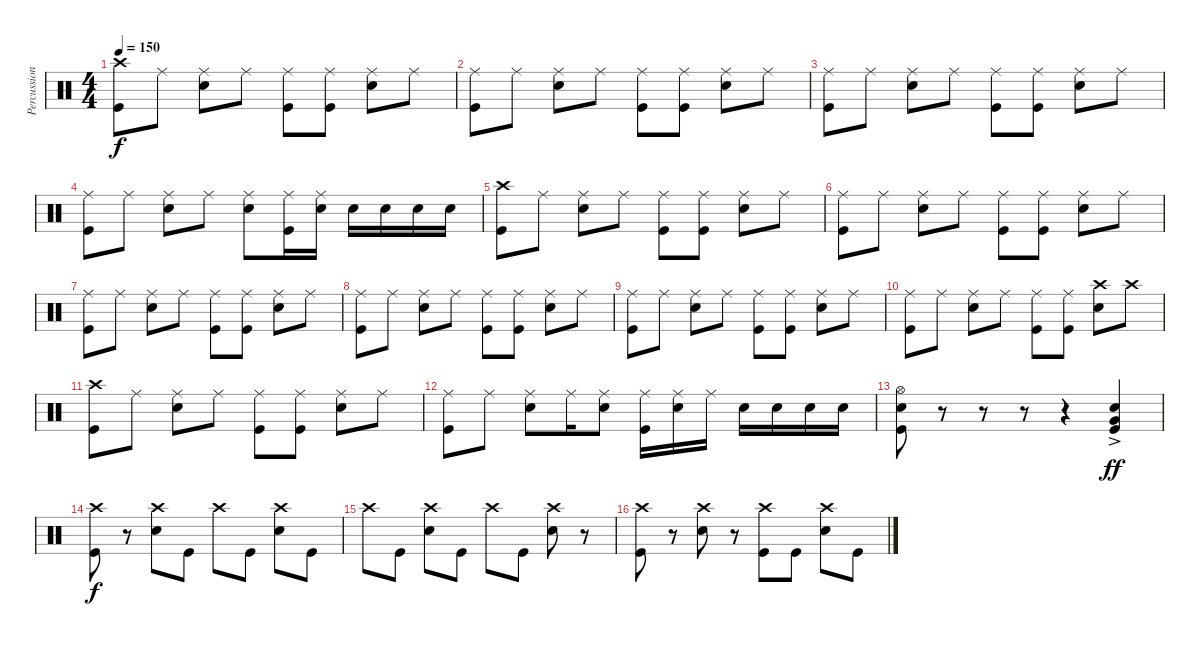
\track ("Percussion" "Percussion") {instrument percussion}
\staff {score}
\articulation defaults
\ts (4 4)
\tempo 150
\clef neutral
\ks c
("Crash high (hit)" "Kick (hit)").8{dy f} "Ride (middle)".8 ("Ride (middle)" "Snare (hit) 2").8 "Ride (middle)".8 ("Ride (middle)" "Kick (hit)").8 ("Ride (middle)" "Kick (hit)").8 ("Ride (middle)" "Snare (hit) 2").8 "Ride (middle)".8 |
("Ride (middle)" "Kick (hit)").8 "Ride (middle)".8 ("Ride (middle)" "Snare (hit) 2").8 "Ride (middle)".8 ("Ride (middle)" "Kick (hit)").8 ("Ride (middle)" "Kick (hit)").8 ("Ride (middle)" "Snare (hit) 2").8 "Ride (middle)".8 |
("Ride (middle)" "Kick (hit)").8 "Ride (middle)".8 ("Ride (middle)" "Snare (hit) 2").8 "Ride (middle)".8 ("Ride (middle)" "Kick (hit)").8 ("Ride (middle)" "Kick (hit)").8 ("Ride (middle)" "Snare (hit) 2").8 "Ride (middle)".8 |
("Ride (middle)" "Kick (hit)").8 "Ride (middle)".8 ("Ride (middle)" "Snare (hit) 2").8 "Ride (middle)".8 ("Ride (middle)" "Snare (hit) 2").8 ("Ride (middle)" "Kick (hit)").16 ("Ride (middle)" "Snare (hit) 2").16 "Snare (hit) 2".16 "Snare (hit) 2".16 "Snare (hit) 2".16 "Snare (hit) 2".16 |
("Crash high (hit)" "Kick (hit)").8 "Ride (middle)".8 ("Ride (middle)" "Snare (hit) 2").8 "Ride (middle)".8 ("Ride (middle)" "Kick (hit)").8 ("Ride (middle)" "Kick (hit)").8 ("Ride (middle)" "Snare (hit) 2").8 "Ride (middle)".8 |
("Ride (middle)" "Kick (hit)").8 "Ride (middle)".8 ("Ride (middle)" "Snare (hit) 2").8 "Ride (middle)".8 ("Ride (middle)" "Kick (hit)").8 ("Ride (middle)" "Kick (hit)").8 ("Ride (middle)" "Snare (hit) 2").8 "Ride (middle)".8 |
("Ride (middle)" "Kick (hit)").8 "Ride (middle)".8 ("Ride (middle)" "Snare (hit) 2").8 "Ride (middle)".8 ("Ride (middle)" "Kick (hit)").8 ("Ride (middle)" "Kick (hit)").8 ("Ride (middle)" "Snare (hit) 2").8 "Ride (middle)".8 |
("Ride (middle)" "Kick (hit)").8 "Ride (middle)".8 ("Ride (middle)" "Snare (hit) 2").8 "Ride (middle)".8 ("Ride (middle)" "Kick (hit)").8 ("Ride (middle)" "Kick (hit)").8 ("Ride (middle)" "Snare (hit) 2").8 "Ride (middle)".8 |
("Ride (middle)" "Kick (hit)").8 "Ride (middle)".8 ("Ride (middle)" "Snare (hit) 2").8 "Ride (middle)".8 ("Ride (middle)" "Kick (hit)").8 ("Ride (middle)" "Kick (hit)").8 ("Ride (middle)" "Snare (hit) 2").8 "Ride (middle)".8 |
("Ride (middle)" "Kick (hit)").8 "Ride (middle)".8 ("Ride (middle)" "Snare (hit) 2").8 "Ride (middle)".8 ("Ride (middle)" "Kick (hit)").8 ("Ride (middle)" "Kick (hit)").8 ("Crash high (hit)" "Snare (hit) 2").8 "Crash high (hit)".8 |
("Crash high (hit)" "Kick (hit)").8 "Ride (middle)".8 ("Ride (middle)" "Snare (hit) 2").8 "Ride (middle)".8 ("Ride (middle)" "Kick (hit)").8 ("Ride (middle)" "Kick (hit)").8 ("Ride (middle)" "Snare (hit) 2").8 "Ride (middle)".8 |
("Ride (middle)" "Kick (hit)").8 "Ride (middle)".8 ("Ride (middle)" "Snare (hit) 2").8 "Ride (middle)".16 ("Ride (middle)" "Snare (hit) 2").8 ("Ride (middle)" "Kick (hit)").16 ("Ride (middle)" "Snare (hit) 2").16 "Ride (middle)".16 "Snare (hit) 2".16 "Snare (hit) 2".16 "Snare (hit) 2".16 "Snare (hit) 2".16 |
("Hi-Hat (open)" "Snare (hit) 2" "Kick (hit)").8 r.8 r.8 r.8 r.4 ("Very Low Tom (hit)"{ac} "Snare (hit) 2" "Kick (hit)").4{dy ff} |
("Crash high (hit)" "Kick (hit)").8{dy f} r.8 ("Crash high (hit)" "Snare (hit) 2").8 "Kick (hit)".8 "Crash high (hit)".8 "Kick (hit)".8 ("Crash high (hit)" "Snare (hit) 2").8 "Kick (hit)".8 |
"Crash high (hit)".8 "Kick (hit)".8 ("Crash high (hit)" "Snare (hit) 2").8 "Kick (hit)".8 "Crash high (hit)".8 "Kick (hit)".8 ("Crash high (hit)" "Snare (hit) 2").8 r.8 |
("Crash high (hit)" "Kick (hit)").8 r.8 ("Crash high (hit)" "Snare (hit) 2").8 r.8 ("Crash high (hit)" "Kick (hit)").8 "Kick (hit)".8 ("Crash high (hit)" "Snare (hit) 2").8 "Kick (hit)".8
